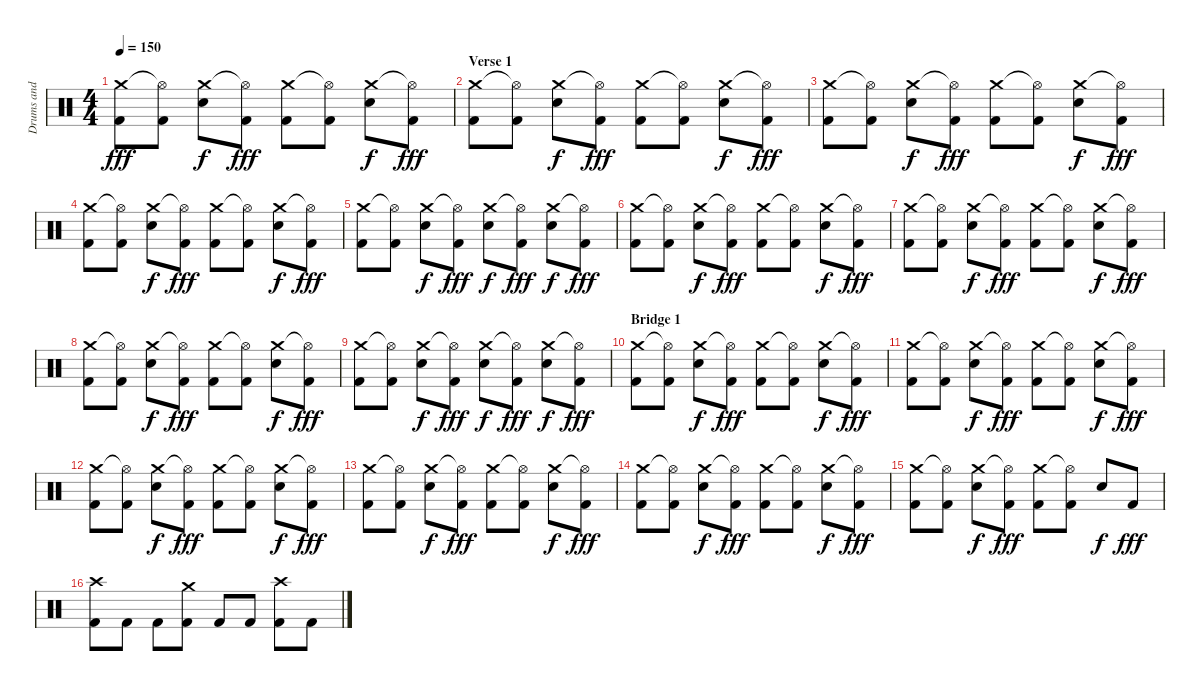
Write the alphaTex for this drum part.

\track ("Drums and Percussion" "Drums and ") {instrument percussion}
\staff {score}
\articulation defaults
\ts (4 4)
\tempo 150
\clef neutral
\ks c
("Crash medium (hit)" "Kick (hit) 2").8{dy fff} ("Hi-Hat (open)"{t} "Kick (hit) 2").8 ("Crash medium (hit)" "Electric Snare (hit)").8{dy f} ("Hi-Hat (open)"{t} "Kick (hit) 2").8{dy fff} ("Crash medium (hit)" "Kick (hit) 2").8 ("Hi-Hat (open)"{t} "Kick (hit) 2").8 ("Crash medium (hit)" "Electric Snare (hit)").8{dy f} ("Hi-Hat (open)"{t} "Kick (hit) 2").8{dy fff} |
\section ("" "Verse 1")
("Crash medium (hit)" "Kick (hit) 2").8 ("Hi-Hat (open)"{t} "Kick (hit) 2").8 ("Crash medium (hit)" "Electric Snare (hit)").8{dy f} ("Hi-Hat (open)"{t} "Kick (hit) 2").8{dy fff} ("Crash medium (hit)" "Kick (hit) 2").8 ("Hi-Hat (open)"{t} "Kick (hit) 2").8 ("Crash medium (hit)" "Electric Snare (hit)").8{dy f} ("Hi-Hat (open)"{t} "Kick (hit) 2").8{dy fff} |
("Crash medium (hit)" "Kick (hit) 2").8 ("Hi-Hat (open)"{t} "Kick (hit) 2").8 ("Crash medium (hit)" "Electric Snare (hit)").8{dy f} ("Hi-Hat (open)"{t} "Kick (hit) 2").8{dy fff} ("Crash medium (hit)" "Kick (hit) 2").8 ("Hi-Hat (open)"{t} "Kick (hit) 2").8 ("Crash medium (hit)" "Electric Snare (hit)").8{dy f} ("Hi-Hat (open)"{t} "Kick (hit) 2").8{dy fff} |
("Crash medium (hit)" "Kick (hit) 2").8 ("Hi-Hat (open)"{t} "Kick (hit) 2").8 ("Crash medium (hit)" "Electric Snare (hit)").8{dy f} ("Hi-Hat (open)"{t} "Kick (hit) 2").8{dy fff} ("Crash medium (hit)" "Kick (hit) 2").8 ("Hi-Hat (open)"{t} "Kick (hit) 2").8 ("Crash medium (hit)" "Electric Snare (hit)").8{dy f} ("Hi-Hat (open)"{t} "Kick (hit) 2").8{dy fff} |
("Crash medium (hit)" "Kick (hit) 2").8 ("Hi-Hat (open)"{t} "Kick (hit) 2").8 ("Crash medium (hit)" "Electric Snare (hit)").8{dy f} ("Hi-Hat (open)"{t} "Kick (hit) 2").8{dy fff} ("Crash medium (hit)" "Electric Snare (hit)").8{dy f} ("Hi-Hat (open)"{t} "Kick (hit) 2").8{dy fff} ("Crash medium (hit)" "Electric Snare (hit)").8{dy f} ("Hi-Hat (open)"{t} "Kick (hit) 2").8{dy fff} |
("Crash medium (hit)" "Kick (hit) 2").8 ("Hi-Hat (open)"{t} "Kick (hit) 2").8 ("Crash medium (hit)" "Electric Snare (hit)").8{dy f} ("Hi-Hat (open)"{t} "Kick (hit) 2").8{dy fff} ("Crash medium (hit)" "Kick (hit) 2").8 ("Hi-Hat (open)"{t} "Kick (hit) 2").8 ("Crash medium (hit)" "Electric Snare (hit)").8{dy f} ("Hi-Hat (open)"{t} "Kick (hit) 2").8{dy fff} |
("Crash medium (hit)" "Kick (hit) 2").8 ("Hi-Hat (open)"{t} "Kick (hit) 2").8 ("Crash medium (hit)" "Electric Snare (hit)").8{dy f} ("Hi-Hat (open)"{t} "Kick (hit) 2").8{dy fff} ("Crash medium (hit)" "Kick (hit) 2").8 ("Hi-Hat (open)"{t} "Kick (hit) 2").8 ("Crash medium (hit)" "Electric Snare (hit)").8{dy f} ("Hi-Hat (open)"{t} "Kick (hit) 2").8{dy fff} |
("Crash medium (hit)" "Kick (hit) 2").8 ("Hi-Hat (open)"{t} "Kick (hit) 2").8 ("Crash medium (hit)" "Electric Snare (hit)").8{dy f} ("Hi-Hat (open)"{t} "Kick (hit) 2").8{dy fff} ("Crash medium (hit)" "Kick (hit) 2").8 ("Hi-Hat (open)"{t} "Kick (hit) 2").8 ("Crash medium (hit)" "Electric Snare (hit)").8{dy f} ("Hi-Hat (open)"{t} "Kick (hit) 2").8{dy fff} |
("Crash medium (hit)" "Kick (hit) 2").8 ("Hi-Hat (open)"{t} "Kick (hit) 2").8 ("Crash medium (hit)" "Electric Snare (hit)").8{dy f} ("Hi-Hat (open)"{t} "Kick (hit) 2").8{dy fff} ("Crash medium (hit)" "Electric Snare (hit)").8{dy f} ("Hi-Hat (open)"{t} "Kick (hit) 2").8{dy fff} ("Crash medium (hit)" "Electric Snare (hit)").8{dy f} ("Hi-Hat (open)"{t} "Kick (hit) 2").8{dy fff} |
\section ("" "Bridge 1")
("Crash medium (hit)" "Kick (hit) 2").8 ("Hi-Hat (open)"{t} "Kick (hit) 2").8 ("Crash medium (hit)" "Electric Snare (hit)").8{dy f} ("Hi-Hat (open)"{t} "Kick (hit) 2").8{dy fff} ("Crash medium (hit)" "Kick (hit) 2").8 ("Hi-Hat (open)"{t} "Kick (hit) 2").8 ("Crash medium (hit)" "Electric Snare (hit)").8{dy f} ("Hi-Hat (open)"{t} "Kick (hit) 2").8{dy fff} |
("Crash medium (hit)" "Kick (hit) 2").8 ("Hi-Hat (open)"{t} "Kick (hit) 2").8 ("Crash medium (hit)" "Electric Snare (hit)").8{dy f} ("Hi-Hat (open)"{t} "Kick (hit) 2").8{dy fff} ("Crash medium (hit)" "Kick (hit) 2").8 ("Hi-Hat (open)"{t} "Kick (hit) 2").8 ("Crash medium (hit)" "Electric Snare (hit)").8{dy f} ("Hi-Hat (open)"{t} "Kick (hit) 2").8{dy fff} |
("Crash medium (hit)" "Kick (hit) 2").8 ("Hi-Hat (open)"{t} "Kick (hit) 2").8 ("Crash medium (hit)" "Electric Snare (hit)").8{dy f} ("Hi-Hat (open)"{t} "Kick (hit) 2").8{dy fff} ("Crash medium (hit)" "Kick (hit) 2").8 ("Hi-Hat (open)"{t} "Kick (hit) 2").8 ("Crash medium (hit)" "Electric Snare (hit)").8{dy f} ("Hi-Hat (open)"{t} "Kick (hit) 2").8{dy fff} |
("Crash medium (hit)" "Kick (hit) 2").8 ("Hi-Hat (open)"{t} "Kick (hit) 2").8 ("Crash medium (hit)" "Electric Snare (hit)").8{dy f} ("Hi-Hat (open)"{t} "Kick (hit) 2").8{dy fff} ("Crash medium (hit)" "Kick (hit) 2").8 ("Hi-Hat (open)"{t} "Kick (hit) 2").8 ("Crash medium (hit)" "Electric Snare (hit)").8{dy f} ("Hi-Hat (open)"{t} "Kick (hit) 2").8{dy fff} |
("Crash medium (hit)" "Kick (hit) 2").8 ("Hi-Hat (open)"{t} "Kick (hit) 2").8 ("Crash medium (hit)" "Electric Snare (hit)").8{dy f} ("Hi-Hat (open)"{t} "Kick (hit) 2").8{dy fff} ("Crash medium (hit)" "Kick (hit) 2").8 ("Hi-Hat (open)"{t} "Kick (hit) 2").8 ("Crash medium (hit)" "Electric Snare (hit)").8{dy f} ("Hi-Hat (open)"{t} "Kick (hit) 2").8{dy fff} |
("Crash medium (hit)" "Kick (hit) 2").8 ("Hi-Hat (open)"{t} "Kick (hit) 2").8 ("Crash medium (hit)" "Electric Snare (hit)").8{dy f} ("Hi-Hat (open)"{t} "Kick (hit) 2").8{dy fff} ("Crash medium (hit)" "Kick (hit) 2").8 ("Hi-Hat (open)"{t} "Kick (hit) 2").8 "Electric Snare (hit)".8{dy f} "Kick (hit) 2".8{dy fff} |
("Crash high (hit)" "Kick (hit) 2").8 "Kick (hit) 2".8 "Kick (hit) 2".8 ("Crash medium (hit)" "Kick (hit) 2").8 "Kick (hit) 2".8 "Kick (hit) 2".8 ("Crash high (hit)" "Kick (hit) 2").8 "Kick (hit) 2".8
